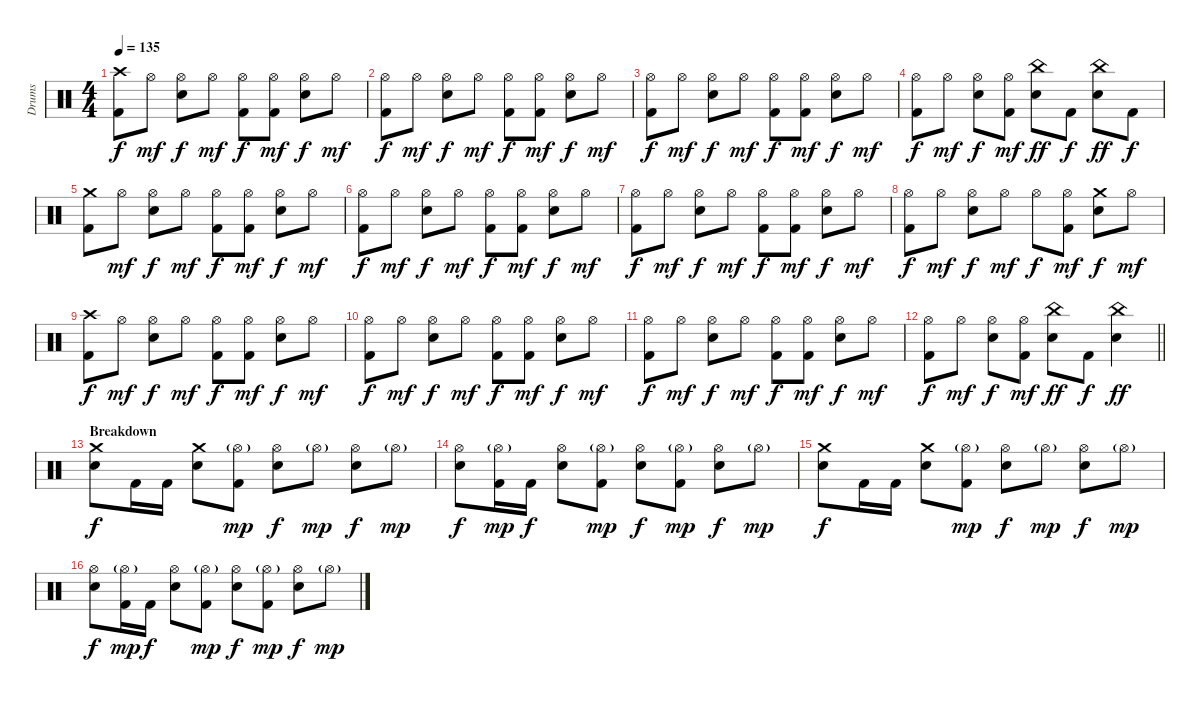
\track ("Drums" "Drums") {instrument percussion}
\staff {score}
\articulation defaults
\ts (4 4)
\tempo 135
\clef neutral
\ks c
("Crash high (hit)" "Kick (hit) 2").8{dy f} "Hi-Hat (open)".8{dy mf} ("Hi-Hat (open)" "Electric Snare (hit)").8{dy f} "Hi-Hat (open)".8{dy mf} ("Hi-Hat (open)" "Kick (hit) 2").8{dy f} ("Hi-Hat (open)" "Kick (hit) 2").8{dy mf} ("Hi-Hat (open)" "Electric Snare (hit)").8{dy f} "Hi-Hat (open)".8{dy mf} |
("Hi-Hat (open)" "Kick (hit) 2").8{dy f} "Hi-Hat (open)".8{dy mf} ("Hi-Hat (open)" "Electric Snare (hit)").8{dy f} "Hi-Hat (open)".8{dy mf} ("Hi-Hat (open)" "Kick (hit) 2").8{dy f} ("Hi-Hat (open)" "Kick (hit) 2").8{dy mf} ("Hi-Hat (open)" "Electric Snare (hit)").8{dy f} "Hi-Hat (open)".8{dy mf} |
("Hi-Hat (open)" "Kick (hit) 2").8{dy f} "Hi-Hat (open)".8{dy mf} ("Hi-Hat (open)" "Electric Snare (hit)").8{dy f} "Hi-Hat (open)".8{dy mf} ("Hi-Hat (open)" "Kick (hit) 2").8{dy f} ("Hi-Hat (open)" "Kick (hit) 2").8{dy mf} ("Hi-Hat (open)" "Electric Snare (hit)").8{dy f} "Hi-Hat (open)".8{dy mf} |
("Hi-Hat (open)" "Kick (hit) 2").8{dy f} "Hi-Hat (open)".8{dy mf} ("Hi-Hat (open)" "Electric Snare (hit)").8{dy f} ("Hi-Hat (open)" "Kick (hit) 2").8{dy mf} ("China (hit)" "Electric Snare (hit)").8{dy ff} "Kick (hit) 2".8{dy f} ("China (hit)" "Electric Snare (hit)").8{dy ff} "Kick (hit) 2".8{dy f} |
("Crash medium (hit)" "Kick (hit) 2").8 "Hi-Hat (open)".8{dy mf} ("Hi-Hat (open)" "Electric Snare (hit)").8{dy f} "Hi-Hat (open)".8{dy mf} ("Hi-Hat (open)" "Kick (hit) 2").8{dy f} ("Hi-Hat (open)" "Kick (hit) 2").8{dy mf} ("Hi-Hat (open)" "Electric Snare (hit)").8{dy f} "Hi-Hat (open)".8{dy mf} |
("Hi-Hat (open)" "Kick (hit) 2").8{dy f} "Hi-Hat (open)".8{dy mf} ("Hi-Hat (open)" "Electric Snare (hit)").8{dy f} "Hi-Hat (open)".8{dy mf} ("Hi-Hat (open)" "Kick (hit) 2").8{dy f} ("Hi-Hat (open)" "Kick (hit) 2").8{dy mf} ("Hi-Hat (open)" "Electric Snare (hit)").8{dy f} "Hi-Hat (open)".8{dy mf} |
("Hi-Hat (open)" "Kick (hit) 2").8{dy f} "Hi-Hat (open)".8{dy mf} ("Hi-Hat (open)" "Electric Snare (hit)").8{dy f} "Hi-Hat (open)".8{dy mf} ("Hi-Hat (open)" "Kick (hit) 2").8{dy f} ("Hi-Hat (open)" "Kick (hit) 2").8{dy mf} ("Hi-Hat (open)" "Electric Snare (hit)").8{dy f} "Hi-Hat (open)".8{dy mf} |
("Hi-Hat (open)" "Kick (hit) 2").8{dy f} "Hi-Hat (open)".8{dy mf} ("Hi-Hat (open)" "Electric Snare (hit)").8{dy f} "Hi-Hat (open)".8{dy mf} "Hi-Hat (open)".8{dy f} ("Hi-Hat (open)" "Kick (hit) 2").8{dy mf} ("Crash medium (hit)" "Electric Snare (hit)").8{dy f} "Hi-Hat (open)".8{dy mf} |
("Crash high (hit)" "Kick (hit) 2").8{dy f} "Hi-Hat (open)".8{dy mf} ("Hi-Hat (open)" "Electric Snare (hit)").8{dy f} "Hi-Hat (open)".8{dy mf} ("Hi-Hat (open)" "Kick (hit) 2").8{dy f} ("Hi-Hat (open)" "Kick (hit) 2").8{dy mf} ("Hi-Hat (open)" "Electric Snare (hit)").8{dy f} "Hi-Hat (open)".8{dy mf} |
("Hi-Hat (open)" "Kick (hit) 2").8{dy f} "Hi-Hat (open)".8{dy mf} ("Hi-Hat (open)" "Electric Snare (hit)").8{dy f} "Hi-Hat (open)".8{dy mf} ("Hi-Hat (open)" "Kick (hit) 2").8{dy f} ("Hi-Hat (open)" "Kick (hit) 2").8{dy mf} ("Hi-Hat (open)" "Electric Snare (hit)").8{dy f} "Hi-Hat (open)".8{dy mf} |
("Hi-Hat (open)" "Kick (hit) 2").8{dy f} "Hi-Hat (open)".8{dy mf} ("Hi-Hat (open)" "Electric Snare (hit)").8{dy f} "Hi-Hat (open)".8{dy mf} ("Hi-Hat (open)" "Kick (hit) 2").8{dy f} ("Hi-Hat (open)" "Kick (hit) 2").8{dy mf} ("Hi-Hat (open)" "Electric Snare (hit)").8{dy f} "Hi-Hat (open)".8{dy mf} |
\barLineRight lightlight
("Hi-Hat (open)" "Kick (hit) 2").8{dy f} "Hi-Hat (open)".8{dy mf} ("Hi-Hat (open)" "Electric Snare (hit)").8{dy f} ("Hi-Hat (open)" "Kick (hit) 2").8{dy mf} ("China (hit)" "Electric Snare (hit)").8{dy ff} "Kick (hit) 2".8{dy f} ("China (hit)" "Electric Snare (hit)").4{dy ff} |
\section ("" "Breakdown")
("Crash medium (hit)" "Electric Snare (hit)").8{dy f} "Kick (hit) 2".16 "Kick (hit) 2".16 ("Crash medium (hit)" "Electric Snare (hit)").8 ("Hi-Hat (open)"{g} "Kick (hit) 2").8{dy mp} ("Hi-Hat (open)" "Electric Snare (hit)").8{dy f} "Hi-Hat (open)"{g}.8{dy mp} ("Hi-Hat (open)" "Electric Snare (hit)").8{dy f} "Hi-Hat (open)"{g}.8{dy mp} |
("Hi-Hat (open)" "Electric Snare (hit)").8{dy f} ("Hi-Hat (open)"{g} "Kick (hit) 2").16{dy mp} "Kick (hit) 2".16{dy f} ("Hi-Hat (open)" "Electric Snare (hit)").8 ("Hi-Hat (open)"{g} "Kick (hit) 2").8{dy mp} ("Hi-Hat (open)" "Electric Snare (hit)").8{dy f} ("Hi-Hat (open)"{g} "Kick (hit) 2").8{dy mp} ("Hi-Hat (open)" "Electric Snare (hit)").8{dy f} "Hi-Hat (open)"{g}.8{dy mp} |
("Crash medium (hit)" "Electric Snare (hit)").8{dy f} "Kick (hit) 2".16 "Kick (hit) 2".16 ("Crash medium (hit)" "Electric Snare (hit)").8 ("Hi-Hat (open)"{g} "Kick (hit) 2").8{dy mp} ("Hi-Hat (open)" "Electric Snare (hit)").8{dy f} "Hi-Hat (open)"{g}.8{dy mp} ("Hi-Hat (open)" "Electric Snare (hit)").8{dy f} "Hi-Hat (open)"{g}.8{dy mp} |
("Hi-Hat (open)" "Electric Snare (hit)").8{dy f} ("Hi-Hat (open)"{g} "Kick (hit) 2").16{dy mp} "Kick (hit) 2".16{dy f} ("Hi-Hat (open)" "Electric Snare (hit)").8 ("Hi-Hat (open)"{g} "Kick (hit) 2").8{dy mp} ("Hi-Hat (open)" "Electric Snare (hit)").8{dy f} ("Hi-Hat (open)"{g} "Kick (hit) 2").8{dy mp} ("Hi-Hat (open)" "Electric Snare (hit)").8{dy f} "Hi-Hat (open)"{g}.8{dy mp}
